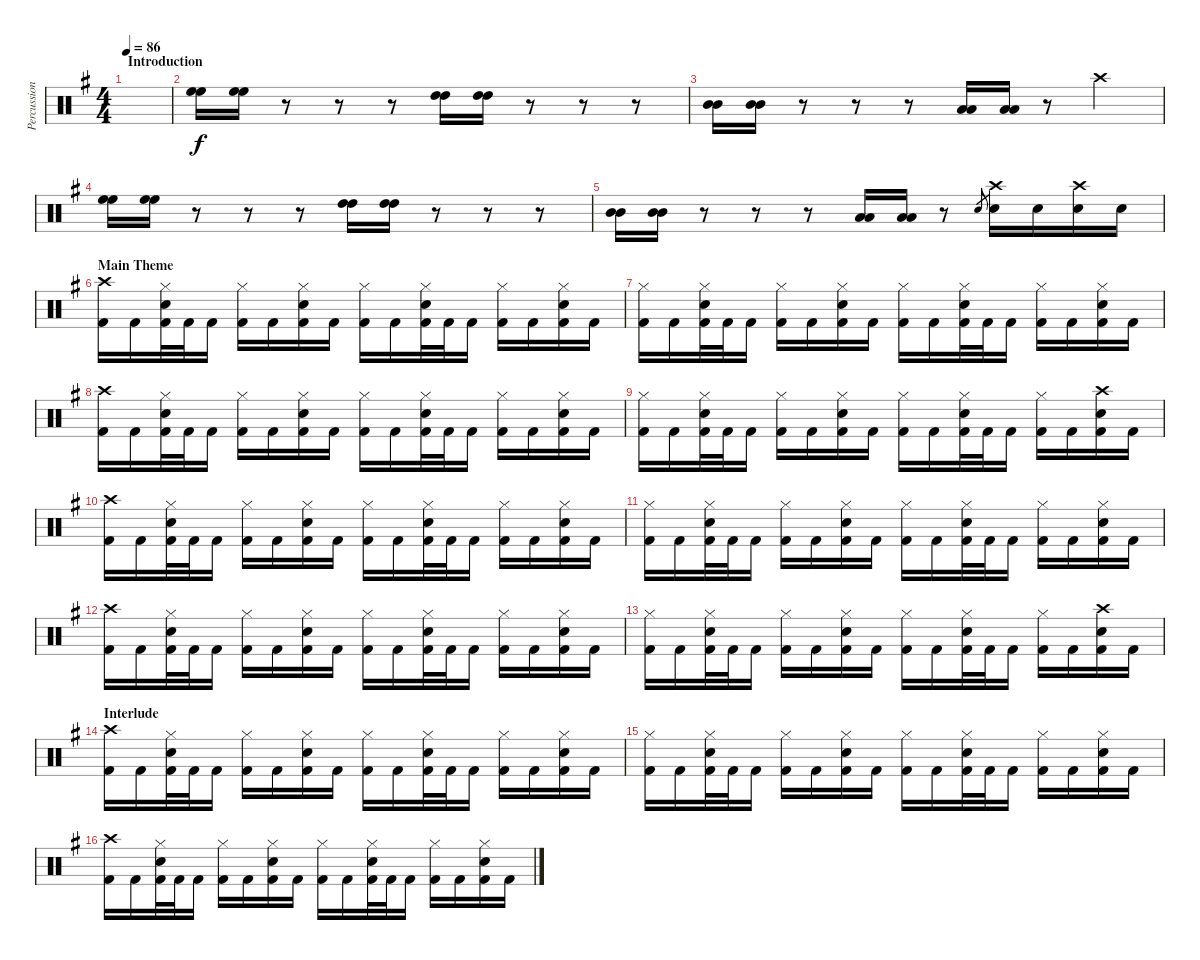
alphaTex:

\track ("Percussions" "Percussion") {instrument percussion}
\staff {score}
\articulation defaults
\ts (4 4)
\section ("" "Introduction")
\tempo 86
\clef neutral
\ks eminor
|
("High Floor Tom (hit)" "High Floor Tom (hit)").16 ("High Floor Tom (hit)" "High Floor Tom (hit)").16 r.8 r.8 r.8 ("High Tom (hit)" "High Tom (hit)").16 ("High Tom (hit)" "High Tom (hit)").16 r.8 r.8 r.8 |
("Mid Tom (hit)" "Mid Tom (hit)").16 ("Mid Tom (hit)" "Mid Tom (hit)").16 r.8 r.8 r.8 ("Low Tom (hit)" "Low Tom (hit)").16 ("Low Tom (hit)" "Low Tom (hit)").16 r.8 "Crash high (hit)".4 |
("High Floor Tom (hit)" "High Floor Tom (hit)").16 ("High Floor Tom (hit)" "High Floor Tom (hit)").16 r.8 r.8 r.8 ("High Tom (hit)" "High Tom (hit)").16 ("High Tom (hit)" "High Tom (hit)").16 r.8 r.8 r.8 |
("Mid Tom (hit)" "Mid Tom (hit)").16 ("Mid Tom (hit)" "Mid Tom (hit)").16 r.8 r.8 r.8 ("Low Tom (hit)" "Low Tom (hit)").16 ("Low Tom (hit)" "Low Tom (hit)").16 r.8 "Snare (hit) 2".8{gr} ("Crash high (hit)" "Snare (hit) 2").16 "Snare (hit) 2".16 ("Crash high (hit)" "Snare (hit) 2").16 "Snare (hit) 2".16 |
\section ("" "Main Theme")
("Crash high (hit)" "Kick (hit) 2").16 "Kick (hit) 2".16 ("Hi-Hat (closed)" "Snare (hit) 2" "Kick (hit) 2").32 "Kick (hit) 2".32 "Kick (hit) 2".16 ("Hi-Hat (closed)" "Kick (hit) 2").16 "Kick (hit) 2".16 ("Hi-Hat (closed)" "Snare (hit) 2" "Kick (hit) 2").16 "Kick (hit) 2".16 ("Hi-Hat (closed)" "Kick (hit) 2").16 "Kick (hit) 2".16 ("Hi-Hat (closed)" "Snare (hit) 2" "Kick (hit) 2").32 "Kick (hit) 2".32 "Kick (hit) 2".16 ("Hi-Hat (closed)" "Kick (hit) 2").16 "Kick (hit) 2".16 ("Hi-Hat (closed)" "Snare (hit) 2" "Kick (hit) 2").16 "Kick (hit) 2".16 |
("Hi-Hat (closed)" "Kick (hit) 2").16 "Kick (hit) 2".16 ("Hi-Hat (closed)" "Snare (hit) 2" "Kick (hit) 2").32 "Kick (hit) 2".32 "Kick (hit) 2".16 ("Hi-Hat (closed)" "Kick (hit) 2").16 "Kick (hit) 2".16 ("Hi-Hat (closed)" "Snare (hit) 2" "Kick (hit) 2").16 "Kick (hit) 2".16 ("Hi-Hat (closed)" "Kick (hit) 2").16 "Kick (hit) 2".16 ("Hi-Hat (closed)" "Snare (hit) 2" "Kick (hit) 2").32 "Kick (hit) 2".32 "Kick (hit) 2".16 ("Hi-Hat (closed)" "Kick (hit) 2").16 "Kick (hit) 2".16 ("Hi-Hat (closed)" "Snare (hit) 2" "Kick (hit) 2").16 "Kick (hit) 2".16 |
("Crash high (hit)" "Kick (hit) 2").16 "Kick (hit) 2".16 ("Hi-Hat (closed)" "Snare (hit) 2" "Kick (hit) 2").32 "Kick (hit) 2".32 "Kick (hit) 2".16 ("Hi-Hat (closed)" "Kick (hit) 2").16 "Kick (hit) 2".16 ("Hi-Hat (closed)" "Snare (hit) 2" "Kick (hit) 2").16 "Kick (hit) 2".16 ("Hi-Hat (closed)" "Kick (hit) 2").16 "Kick (hit) 2".16 ("Hi-Hat (closed)" "Snare (hit) 2" "Kick (hit) 2").32 "Kick (hit) 2".32 "Kick (hit) 2".16 ("Hi-Hat (closed)" "Kick (hit) 2").16 "Kick (hit) 2".16 ("Hi-Hat (closed)" "Snare (hit) 2" "Kick (hit) 2").16 "Kick (hit) 2".16 |
("Hi-Hat (closed)" "Kick (hit) 2").16 "Kick (hit) 2".16 ("Hi-Hat (closed)" "Snare (hit) 2" "Kick (hit) 2").32 "Kick (hit) 2".32 "Kick (hit) 2".16 ("Hi-Hat (closed)" "Kick (hit) 2").16 "Kick (hit) 2".16 ("Hi-Hat (closed)" "Snare (hit) 2" "Kick (hit) 2").16 "Kick (hit) 2".16 ("Hi-Hat (closed)" "Kick (hit) 2").16 "Kick (hit) 2".16 ("Hi-Hat (closed)" "Snare (hit) 2" "Kick (hit) 2").32 "Kick (hit) 2".32 "Kick (hit) 2".16 ("Hi-Hat (closed)" "Kick (hit) 2").16 "Kick (hit) 2".16 ("Crash high (hit)" "Snare (hit) 2" "Kick (hit) 2").16 "Kick (hit) 2".16 |
("Crash high (hit)" "Kick (hit) 2").16 "Kick (hit) 2".16 ("Hi-Hat (closed)" "Snare (hit) 2" "Kick (hit) 2").32 "Kick (hit) 2".32 "Kick (hit) 2".16 ("Hi-Hat (closed)" "Kick (hit) 2").16 "Kick (hit) 2".16 ("Hi-Hat (closed)" "Snare (hit) 2" "Kick (hit) 2").16 "Kick (hit) 2".16 ("Hi-Hat (closed)" "Kick (hit) 2").16 "Kick (hit) 2".16 ("Hi-Hat (closed)" "Snare (hit) 2" "Kick (hit) 2").32 "Kick (hit) 2".32 "Kick (hit) 2".16 ("Hi-Hat (closed)" "Kick (hit) 2").16 "Kick (hit) 2".16 ("Hi-Hat (closed)" "Snare (hit) 2" "Kick (hit) 2").16 "Kick (hit) 2".16 |
("Hi-Hat (closed)" "Kick (hit) 2").16 "Kick (hit) 2".16 ("Hi-Hat (closed)" "Snare (hit) 2" "Kick (hit) 2").32 "Kick (hit) 2".32 "Kick (hit) 2".16 ("Hi-Hat (closed)" "Kick (hit) 2").16 "Kick (hit) 2".16 ("Hi-Hat (closed)" "Snare (hit) 2" "Kick (hit) 2").16 "Kick (hit) 2".16 ("Hi-Hat (closed)" "Kick (hit) 2").16 "Kick (hit) 2".16 ("Hi-Hat (closed)" "Snare (hit) 2" "Kick (hit) 2").32 "Kick (hit) 2".32 "Kick (hit) 2".16 ("Hi-Hat (closed)" "Kick (hit) 2").16 "Kick (hit) 2".16 ("Hi-Hat (closed)" "Snare (hit) 2" "Kick (hit) 2").16 "Kick (hit) 2".16 |
("Crash high (hit)" "Kick (hit) 2").16 "Kick (hit) 2".16 ("Hi-Hat (closed)" "Snare (hit) 2" "Kick (hit) 2").32 "Kick (hit) 2".32 "Kick (hit) 2".16 ("Hi-Hat (closed)" "Kick (hit) 2").16 "Kick (hit) 2".16 ("Hi-Hat (closed)" "Snare (hit) 2" "Kick (hit) 2").16 "Kick (hit) 2".16 ("Hi-Hat (closed)" "Kick (hit) 2").16 "Kick (hit) 2".16 ("Hi-Hat (closed)" "Snare (hit) 2" "Kick (hit) 2").32 "Kick (hit) 2".32 "Kick (hit) 2".16 ("Hi-Hat (closed)" "Kick (hit) 2").16 "Kick (hit) 2".16 ("Hi-Hat (closed)" "Snare (hit) 2" "Kick (hit) 2").16 "Kick (hit) 2".16 |
("Hi-Hat (closed)" "Kick (hit) 2").16 "Kick (hit) 2".16 ("Hi-Hat (closed)" "Snare (hit) 2" "Kick (hit) 2").32 "Kick (hit) 2".32 "Kick (hit) 2".16 ("Hi-Hat (closed)" "Kick (hit) 2").16 "Kick (hit) 2".16 ("Hi-Hat (closed)" "Snare (hit) 2" "Kick (hit) 2").16 "Kick (hit) 2".16 ("Hi-Hat (closed)" "Kick (hit) 2").16 "Kick (hit) 2".16 ("Hi-Hat (closed)" "Snare (hit) 2" "Kick (hit) 2").32 "Kick (hit) 2".32 "Kick (hit) 2".16 ("Hi-Hat (closed)" "Kick (hit) 2").16 "Kick (hit) 2".16 ("Crash high (hit)" "Snare (hit) 2" "Kick (hit) 2").16 "Kick (hit) 2".16 |
\section ("" "Interlude")
("Crash high (hit)" "Kick (hit) 2").16 "Kick (hit) 2".16 ("Hi-Hat (closed)" "Snare (hit) 2" "Kick (hit) 2").32 "Kick (hit) 2".32 "Kick (hit) 2".16 ("Hi-Hat (closed)" "Kick (hit) 2").16 "Kick (hit) 2".16 ("Hi-Hat (closed)" "Snare (hit) 2" "Kick (hit) 2").16 "Kick (hit) 2".16 ("Hi-Hat (closed)" "Kick (hit) 2").16 "Kick (hit) 2".16 ("Hi-Hat (closed)" "Snare (hit) 2" "Kick (hit) 2").32 "Kick (hit) 2".32 "Kick (hit) 2".16 ("Hi-Hat (closed)" "Kick (hit) 2").16 "Kick (hit) 2".16 ("Hi-Hat (closed)" "Snare (hit) 2" "Kick (hit) 2").16 "Kick (hit) 2".16 |
("Hi-Hat (closed)" "Kick (hit) 2").16 "Kick (hit) 2".16 ("Hi-Hat (closed)" "Snare (hit) 2" "Kick (hit) 2").32 "Kick (hit) 2".32 "Kick (hit) 2".16 ("Hi-Hat (closed)" "Kick (hit) 2").16 "Kick (hit) 2".16 ("Hi-Hat (closed)" "Snare (hit) 2" "Kick (hit) 2").16 "Kick (hit) 2".16 ("Hi-Hat (closed)" "Kick (hit) 2").16 "Kick (hit) 2".16 ("Hi-Hat (closed)" "Snare (hit) 2" "Kick (hit) 2").32 "Kick (hit) 2".32 "Kick (hit) 2".16 ("Hi-Hat (closed)" "Kick (hit) 2").16 "Kick (hit) 2".16 ("Hi-Hat (closed)" "Snare (hit) 2" "Kick (hit) 2").16 "Kick (hit) 2".16 |
("Crash high (hit)" "Kick (hit) 2").16 "Kick (hit) 2".16 ("Hi-Hat (closed)" "Snare (hit) 2" "Kick (hit) 2").32 "Kick (hit) 2".32 "Kick (hit) 2".16 ("Hi-Hat (closed)" "Kick (hit) 2").16 "Kick (hit) 2".16 ("Hi-Hat (closed)" "Snare (hit) 2" "Kick (hit) 2").16 "Kick (hit) 2".16 ("Hi-Hat (closed)" "Kick (hit) 2").16 "Kick (hit) 2".16 ("Hi-Hat (closed)" "Snare (hit) 2" "Kick (hit) 2").32 "Kick (hit) 2".32 "Kick (hit) 2".16 ("Hi-Hat (closed)" "Kick (hit) 2").16 "Kick (hit) 2".16 ("Hi-Hat (closed)" "Snare (hit) 2" "Kick (hit) 2").16 "Kick (hit) 2".16
